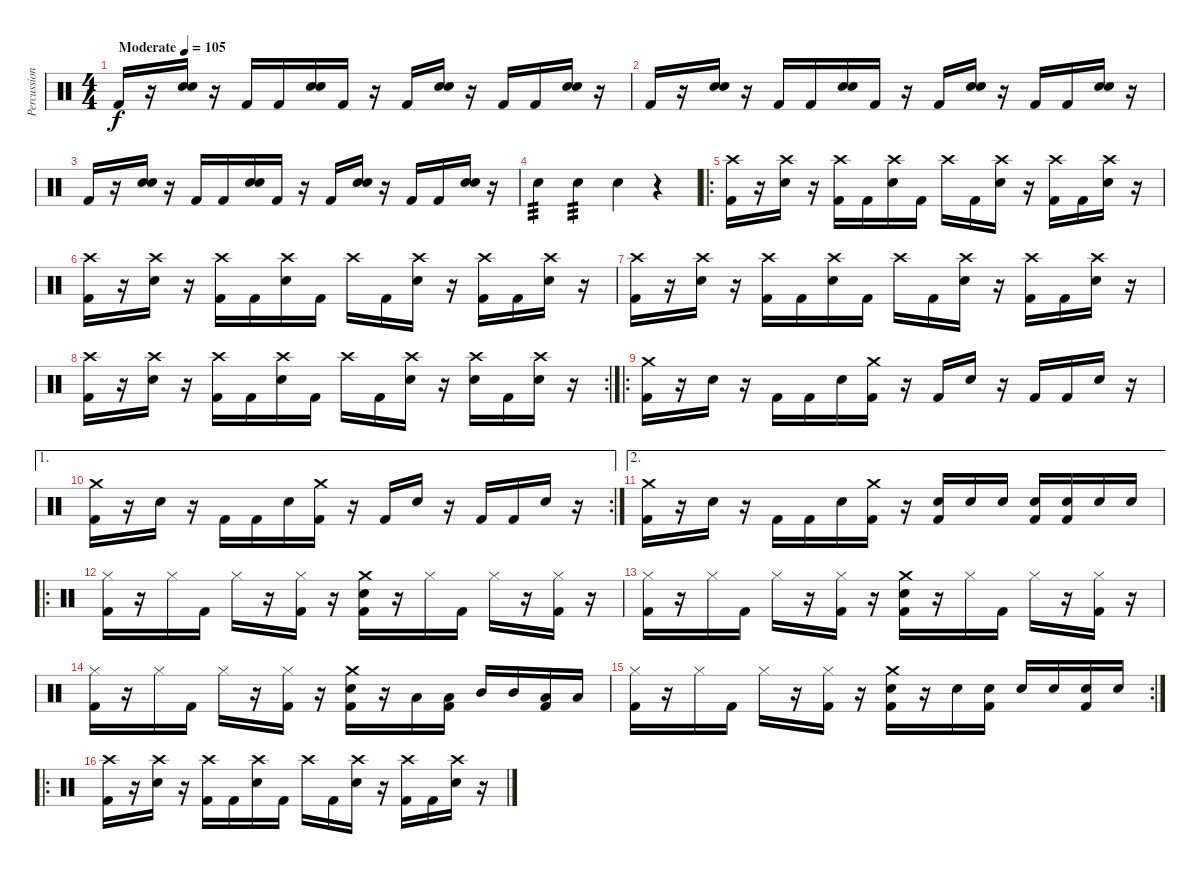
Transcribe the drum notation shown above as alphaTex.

\track ("Percussion" "Percussion") {instrument percussion}
\staff {score}
\articulation defaults
\ts (4 4)
\tempo (105 "Moderate")
\clef neutral
\ks c "Kick (hit) 2".16{dy f}
r.16 ("Snare (hit) 2" "Snare (hit) 2").16 r.16 "Kick (hit) 2".16 "Kick (hit) 2".16 ("Snare (hit) 2" "Snare (hit) 2").16 "Kick (hit) 2".16 r.16 "Kick (hit) 2".16 ("Snare (hit) 2" "Snare (hit) 2").16 r.16 "Kick (hit) 2".16 "Kick (hit) 2".16 ("Snare (hit) 2" "Snare (hit) 2").16 r.16 |
"Kick (hit) 2".16 r.16 ("Snare (hit) 2" "Snare (hit) 2").16 r.16 "Kick (hit) 2".16 "Kick (hit) 2".16 ("Snare (hit) 2" "Snare (hit) 2").16 "Kick (hit) 2".16 r.16 "Kick (hit) 2".16 ("Snare (hit) 2" "Snare (hit) 2").16 r.16 "Kick (hit) 2".16 "Kick (hit) 2".16 ("Snare (hit) 2" "Snare (hit) 2").16 r.16 |
"Kick (hit) 2".16 r.16 ("Snare (hit) 2" "Snare (hit) 2").16 r.16 "Kick (hit) 2".16 "Kick (hit) 2".16 ("Snare (hit) 2" "Snare (hit) 2").16 "Kick (hit) 2".16 r.16 "Kick (hit) 2".16 ("Snare (hit) 2" "Snare (hit) 2").16 r.16 "Kick (hit) 2".16 "Kick (hit) 2".16 ("Snare (hit) 2" "Snare (hit) 2").16 r.16 |
"Snare (hit) 2".4{tp 3} "Snare (hit) 2".4{tp 3} "Snare (hit) 2".4 r.4 |
\ro
("Crash high (hit)" "Kick (hit) 2").16 r.16 ("Snare (hit) 2" "Crash high (hit)").16 r.16 ("Crash high (hit)" "Kick (hit) 2").16 "Kick (hit) 2".16 ("Snare (hit) 2" "Crash high (hit)").16 "Kick (hit) 2".16 "Crash high (hit)".16 "Kick (hit) 2".16 ("Snare (hit) 2" "Crash high (hit)").16 r.16 ("Crash high (hit)" "Kick (hit) 2").16 "Kick (hit) 2".16 ("Snare (hit) 2" "Crash high (hit)").16 r.16 |
("Crash high (hit)" "Kick (hit) 2").16 r.16 ("Snare (hit) 2" "Crash high (hit)").16 r.16 ("Crash high (hit)" "Kick (hit) 2").16 "Kick (hit) 2".16 ("Snare (hit) 2" "Crash high (hit)").16 "Kick (hit) 2".16 "Crash high (hit)".16 "Kick (hit) 2".16 ("Snare (hit) 2" "Crash high (hit)").16 r.16 ("Crash high (hit)" "Kick (hit) 2").16 "Kick (hit) 2".16 ("Snare (hit) 2" "Crash high (hit)").16 r.16 |
("Crash high (hit)" "Kick (hit) 2").16 r.16 ("Snare (hit) 2" "Crash high (hit)").16 r.16 ("Crash high (hit)" "Kick (hit) 2").16 "Kick (hit) 2".16 ("Snare (hit) 2" "Crash high (hit)").16 "Kick (hit) 2".16 "Crash high (hit)".16 "Kick (hit) 2".16 ("Snare (hit) 2" "Crash high (hit)").16 r.16 ("Crash high (hit)" "Kick (hit) 2").16 "Kick (hit) 2".16 ("Snare (hit) 2" "Crash high (hit)").16 r.16 |
\rc 2
("Crash high (hit)" "Kick (hit) 2").16 r.16 ("Snare (hit) 2" "Crash high (hit)").16 r.16 ("Crash high (hit)" "Kick (hit) 2").16 "Kick (hit) 2".16 ("Snare (hit) 2" "Crash high (hit)").16 "Kick (hit) 2".16 "Crash high (hit)".16 "Kick (hit) 2".16 ("Snare (hit) 2" "Crash high (hit)").16 r.16 ("Snare (hit) 2" "Crash high (hit)").16 "Kick (hit) 2".16 ("Snare (hit) 2" "Crash high (hit)").16 r.16 |
\ro
("Crash medium (hit)" "Kick (hit) 2").16 r.16 "Snare (hit) 2".16 r.16 "Kick (hit) 2".16 "Kick (hit) 2".16 "Snare (hit) 2".16 ("Crash medium (hit)" "Kick (hit) 2").16 r.16 "Kick (hit) 2".16 "Snare (hit) 2".16 r.16 "Kick (hit) 2".16 "Kick (hit) 2".16 "Snare (hit) 2".16 r.16 |
\ae 1
\rc 2
("Crash medium (hit)" "Kick (hit) 2").16 r.16 "Snare (hit) 2".16 r.16 "Kick (hit) 2".16 "Kick (hit) 2".16 "Snare (hit) 2".16 ("Crash medium (hit)" "Kick (hit) 2").16 r.16 "Kick (hit) 2".16 "Snare (hit) 2".16 r.16 "Kick (hit) 2".16 "Kick (hit) 2".16 "Snare (hit) 2".16 r.16 |
\ae 2
("Crash medium (hit)" "Kick (hit) 2").16 r.16 "Snare (hit) 2".16 r.16 "Kick (hit) 2".16 "Kick (hit) 2".16 "Snare (hit) 2".16 ("Crash medium (hit)" "Kick (hit) 2").16 r.16 ("Snare (hit) 2" "Kick (hit) 2").16 "Snare (hit) 2".16 "Snare (hit) 2".16 ("Snare (hit) 2" "Kick (hit) 2").16 ("Snare (hit) 2" "Kick (hit) 2").16 "Snare (hit) 2".16 "Snare (hit) 2".16 |
\ro
("Hi-Hat (closed)" "Kick (hit) 2").16 r.16 "Hi-Hat (closed)".16 "Kick (hit) 2".16 "Hi-Hat (closed)".16 r.16 ("Hi-Hat (closed)" "Kick (hit) 2").16 r.16 ("Snare (hit) 2" "Crash medium (hit)" "Kick (hit) 2").16 r.16 "Hi-Hat (closed)".16 "Kick (hit) 2".16 "Hi-Hat (closed)".16 r.16 ("Hi-Hat (closed)" "Kick (hit) 2").16 r.16 |
("Hi-Hat (closed)" "Kick (hit) 2").16 r.16 "Hi-Hat (closed)".16 "Kick (hit) 2".16 "Hi-Hat (closed)".16 r.16 ("Hi-Hat (closed)" "Kick (hit) 2").16 r.16 ("Snare (hit) 2" "Crash medium (hit)" "Kick (hit) 2").16 r.16 "Hi-Hat (closed)".16 "Kick (hit) 2".16 "Hi-Hat (closed)".16 r.16 ("Hi-Hat (closed)" "Kick (hit) 2").16 r.16 |
("Hi-Hat (closed)" "Kick (hit) 2").16 r.16 "Hi-Hat (closed)".16 "Kick (hit) 2".16 "Hi-Hat (closed)".16 r.16 ("Hi-Hat (closed)" "Kick (hit) 2").16 r.16 ("Snare (hit) 2" "Crash medium (hit)" "Kick (hit) 2").16 r.16 "Low Floor Tom (hit)".16 ("Low Floor Tom (hit)" "Kick (hit) 2").16 "Mid Tom (hit)".16 "Mid Tom (hit)".16 ("Low Tom (hit)" "Kick (hit) 2").16 "Low Tom (hit)".16 |
\rc 2
("Hi-Hat (closed)" "Kick (hit) 2").16 r.16 "Hi-Hat (closed)".16 "Kick (hit) 2".16 "Hi-Hat (closed)".16 r.16 ("Hi-Hat (closed)" "Kick (hit) 2").16 r.16 ("Snare (hit) 2" "Crash medium (hit)" "Kick (hit) 2").16 r.16 "Snare (hit) 2".16 ("Snare (hit) 2" "Kick (hit) 2").16 "Snare (hit) 2".16 "Snare (hit) 2".16 ("Snare (hit) 2" "Kick (hit) 2").16 "Snare (hit) 2".16 |
\ro
("Crash high (hit)" "Kick (hit) 2").16 r.16 ("Snare (hit) 2" "Crash high (hit)").16 r.16 ("Crash high (hit)" "Kick (hit) 2").16 "Kick (hit) 2".16 ("Snare (hit) 2" "Crash high (hit)").16 "Kick (hit) 2".16 "Crash high (hit)".16 "Kick (hit) 2".16 ("Snare (hit) 2" "Crash high (hit)").16 r.16 ("Crash high (hit)" "Kick (hit) 2").16 "Kick (hit) 2".16 ("Snare (hit) 2" "Crash high (hit)").16 r.16
